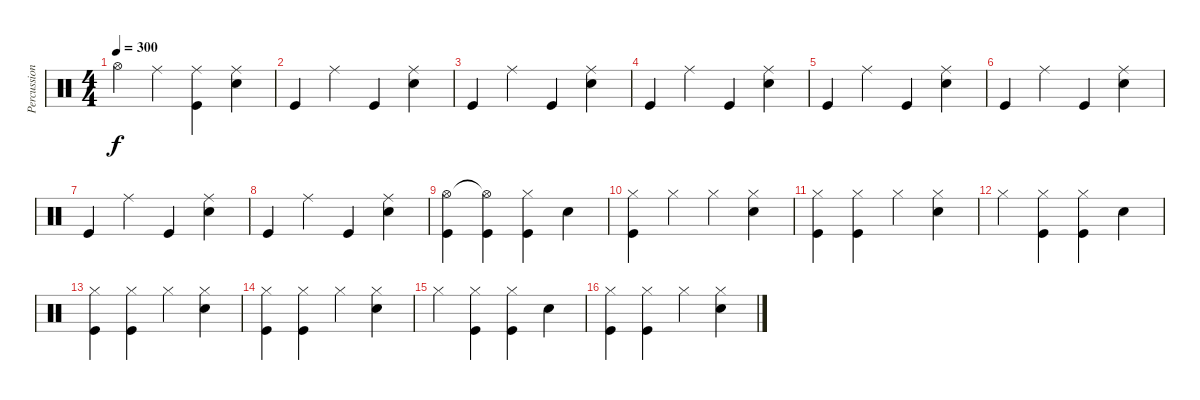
\track ("Percussion" "Percussion") {instrument percussion}
\staff {score}
\articulation defaults
\ts (4 4)
\tempo 300
\clef neutral
\ks c "Hi-Hat (open)"{t}.4{dy f} "Ride (middle)".4
("Kick (hit)" "Ride (middle)"{t}).4 ("Electric Snare (hit)" "Ride (middle)").4 |
"Kick (hit)".4 "Ride (middle)".4 "Kick (hit)".4 ("Electric Snare (hit)" "Ride (middle)").4 |
"Kick (hit)".4 "Ride (middle)".4 "Kick (hit)".4 ("Electric Snare (hit)" "Ride (middle)").4 |
"Kick (hit)".4 "Ride (middle)".4 "Kick (hit)".4 ("Electric Snare (hit)" "Ride (middle)").4 |
"Kick (hit)".4 "Ride (middle)".4 "Kick (hit)".4 ("Electric Snare (hit)" "Ride (middle)").4 |
"Kick (hit)".4 "Ride (middle)".4 "Kick (hit)".4 ("Electric Snare (hit)" "Ride (middle)").4 |
"Kick (hit)".4 "Ride (middle)".4 "Kick (hit)".4 ("Electric Snare (hit)" "Ride (middle)").4 |
"Kick (hit)".4 "Ride (middle)".4 "Kick (hit)".4 ("Electric Snare (hit)" "Ride (middle)").4 |
("Kick (hit)" "Hi-Hat (open)").4 ("Kick (hit)" "Hi-Hat (open)"{t}).4 ("Kick (hit)" "Hi-Hat (closed)").4 "Electric Snare (hit)".4 |
("Kick (hit)" "Hi-Hat (closed)").4 "Hi-Hat (closed)".4 "Hi-Hat (closed)".4 ("Electric Snare (hit)" "Hi-Hat (closed)").4 |
("Kick (hit)" "Hi-Hat (closed)").4 ("Kick (hit)" "Hi-Hat (closed)").4 "Hi-Hat (closed)".4 ("Electric Snare (hit)" "Hi-Hat (closed)").4 |
"Hi-Hat (closed)".4 ("Kick (hit)" "Hi-Hat (closed)").4 ("Kick (hit)" "Hi-Hat (closed)").4 "Electric Snare (hit)".4 |
("Kick (hit)" "Hi-Hat (closed)").4 ("Kick (hit)" "Hi-Hat (closed)").4 "Hi-Hat (closed)".4 ("Electric Snare (hit)" "Hi-Hat (closed)").4 |
("Kick (hit)" "Hi-Hat (closed)").4 ("Kick (hit)" "Hi-Hat (closed)").4 "Hi-Hat (closed)".4 ("Electric Snare (hit)" "Hi-Hat (closed)").4 |
"Hi-Hat (closed)".4 ("Kick (hit)" "Hi-Hat (closed)").4 ("Kick (hit)" "Hi-Hat (closed)").4 "Electric Snare (hit)".4 |
("Kick (hit)" "Hi-Hat (closed)").4 ("Kick (hit)" "Hi-Hat (closed)").4 "Hi-Hat (closed)".4 ("Electric Snare (hit)" "Hi-Hat (closed)").4
